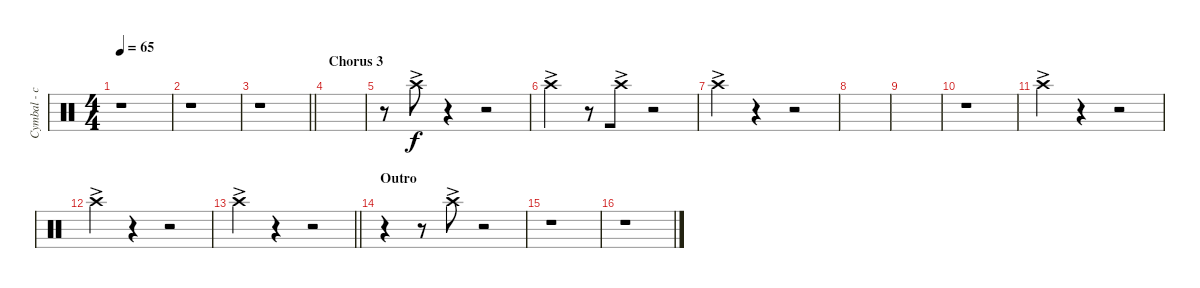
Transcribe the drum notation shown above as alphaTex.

\track ("Cymbal - crash - right" "Cymbal - c") {instrument percussion}
\staff {score}
\articulation defaults
\ts (4 4)
\tempo 65
\clef neutral
\ks c
r.1{dy f} |
r.1 |
\barLineRight lightlight
r.1 |
\section ("" "Chorus 3")
|
r.8 "Crash high (hit)"{ac}.8 r.4 r.2 |
"Crash high (hit)"{ac}.4{beam merge} r.8 "Crash high (hit)"{ac}.8 r.2 |
"Crash high (hit)"{ac}.4 r.4 r.2 |
|
|
r.1 |
"Crash high (hit)"{ac}.4 r.4 r.2 |
"Crash high (hit)"{ac}.4 r.4 r.2 |
\barLineRight lightlight "Crash high (hit)"{ac}.4
r.4 r.2 |
\section ("" "Outro")
r.4{beam merge} r.8 "Crash high (hit)"{ac}.8 r.2 |
r.1 |
r.1
